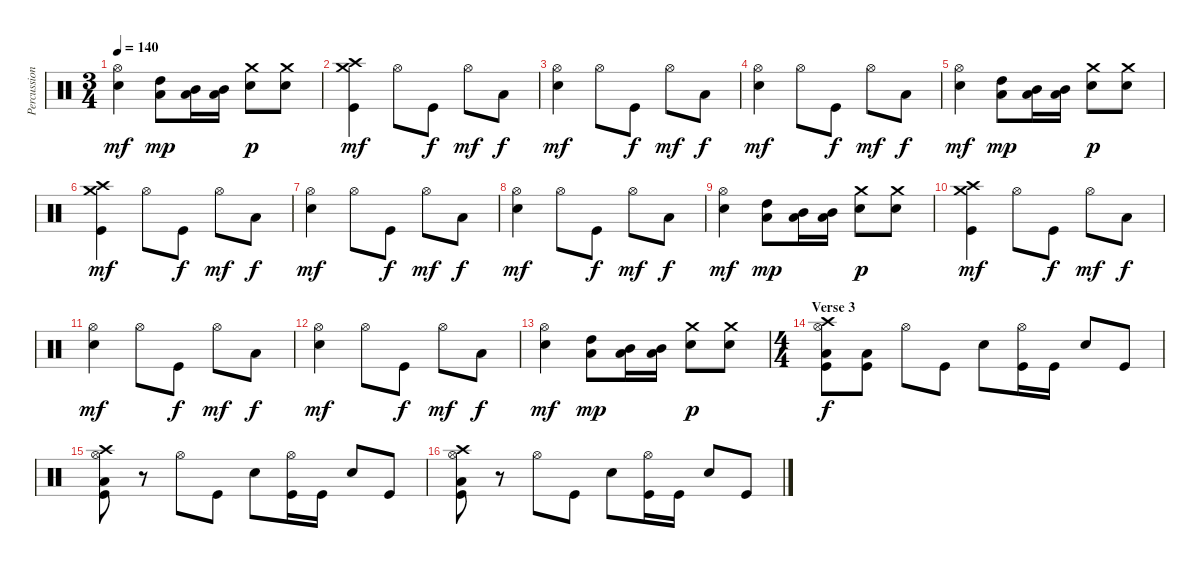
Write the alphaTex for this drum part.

\track ("Percussion" "Percussion") {instrument percussion}
\staff {score}
\articulation defaults
\ts (3 4)
\tempo 140
\clef neutral
\ks c
("Electric Snare (hit)" "Hi-Hat (open)").4{dy mf} ("Low Tom (hit)" "High Tom (hit)").8{dy mp} ("Low Tom (hit)" "Mid Tom (hit)").16 ("Low Tom (hit)" "Mid Tom (hit)").16 ("Electric Snare (hit)" "Crash medium (hit)").8{dy p} ("Electric Snare (hit)" "Crash medium (hit)").8 |
("Kick (hit)" "Crash high (hit)" "Crash medium (hit)").4{dy mf} "Hi-Hat (open)".8 "Kick (hit)".8{dy f} "Hi-Hat (open)".8{dy mf} "Low Floor Tom (hit)".8{dy f} |
("Electric Snare (hit)" "Hi-Hat (open)").4{dy mf} "Hi-Hat (open)".8 "Kick (hit)".8{dy f} "Hi-Hat (open)".8{dy mf} "Low Floor Tom (hit)".8{dy f} |
("Electric Snare (hit)" "Hi-Hat (open)").4{dy mf} "Hi-Hat (open)".8 "Kick (hit)".8{dy f} "Hi-Hat (open)".8{dy mf} "Low Floor Tom (hit)".8{dy f} |
("Electric Snare (hit)" "Hi-Hat (open)").4{dy mf} ("Low Tom (hit)" "High Tom (hit)").8{dy mp} ("Low Tom (hit)" "Mid Tom (hit)").16 ("Low Tom (hit)" "Mid Tom (hit)").16 ("Electric Snare (hit)" "Crash medium (hit)").8{dy p} ("Electric Snare (hit)" "Crash medium (hit)").8 |
("Kick (hit)" "Crash high (hit)" "Crash medium (hit)").4{dy mf} "Hi-Hat (open)".8 "Kick (hit)".8{dy f} "Hi-Hat (open)".8{dy mf} "Low Floor Tom (hit)".8{dy f} |
("Electric Snare (hit)" "Hi-Hat (open)").4{dy mf} "Hi-Hat (open)".8 "Kick (hit)".8{dy f} "Hi-Hat (open)".8{dy mf} "Low Floor Tom (hit)".8{dy f} |
("Electric Snare (hit)" "Hi-Hat (open)").4{dy mf} "Hi-Hat (open)".8 "Kick (hit)".8{dy f} "Hi-Hat (open)".8{dy mf} "Low Floor Tom (hit)".8{dy f} |
("Electric Snare (hit)" "Hi-Hat (open)").4{dy mf} ("Low Tom (hit)" "High Tom (hit)").8{dy mp} ("Low Tom (hit)" "Mid Tom (hit)").16 ("Low Tom (hit)" "Mid Tom (hit)").16 ("Electric Snare (hit)" "Crash medium (hit)").8{dy p} ("Electric Snare (hit)" "Crash medium (hit)").8 |
("Kick (hit)" "Crash high (hit)" "Crash medium (hit)").4{dy mf} "Hi-Hat (open)".8 "Kick (hit)".8{dy f} "Hi-Hat (open)".8{dy mf} "Low Floor Tom (hit)".8{dy f} |
("Electric Snare (hit)" "Hi-Hat (open)").4{dy mf} "Hi-Hat (open)".8 "Kick (hit)".8{dy f} "Hi-Hat (open)".8{dy mf} "Low Floor Tom (hit)".8{dy f} |
("Electric Snare (hit)" "Hi-Hat (open)").4{dy mf} "Hi-Hat (open)".8 "Kick (hit)".8{dy f} "Hi-Hat (open)".8{dy mf} "Low Floor Tom (hit)".8{dy f} |
("Electric Snare (hit)" "Hi-Hat (open)").4{dy mf} ("Low Tom (hit)" "High Tom (hit)").8{dy mp} ("Low Tom (hit)" "Mid Tom (hit)").16 ("Low Tom (hit)" "Mid Tom (hit)").16 ("Electric Snare (hit)" "Crash medium (hit)").8{dy p} ("Electric Snare (hit)" "Crash medium (hit)").8 |
\ts (4 4)
\section ("" "Verse 3")
("Crash high (hit)" "Hi-Hat (open)" "Low Floor Tom (hit)" "Kick (hit)").8{dy f} ("Low Floor Tom (hit)" "Kick (hit)").8 "Hi-Hat (open)".8 "Kick (hit)".8 "Electric Snare (hit)".8 ("Hi-Hat (open)" "Kick (hit)").16 "Kick (hit)".16 "Electric Snare (hit)".8 "Kick (hit)".8 |
("Crash high (hit)" "Hi-Hat (open)" "Low Floor Tom (hit)" "Kick (hit)").8 r.8 "Hi-Hat (open)".8 "Kick (hit)".8 "Electric Snare (hit)".8 ("Hi-Hat (open)" "Kick (hit)").16 "Kick (hit)".16 "Electric Snare (hit)".8 "Kick (hit)".8 |
("Crash high (hit)" "Hi-Hat (open)" "Low Floor Tom (hit)" "Kick (hit)").8 r.8 "Hi-Hat (open)".8 "Kick (hit)".8 "Electric Snare (hit)".8 ("Hi-Hat (open)" "Kick (hit)").16 "Kick (hit)".16 "Electric Snare (hit)".8 "Kick (hit)".8
